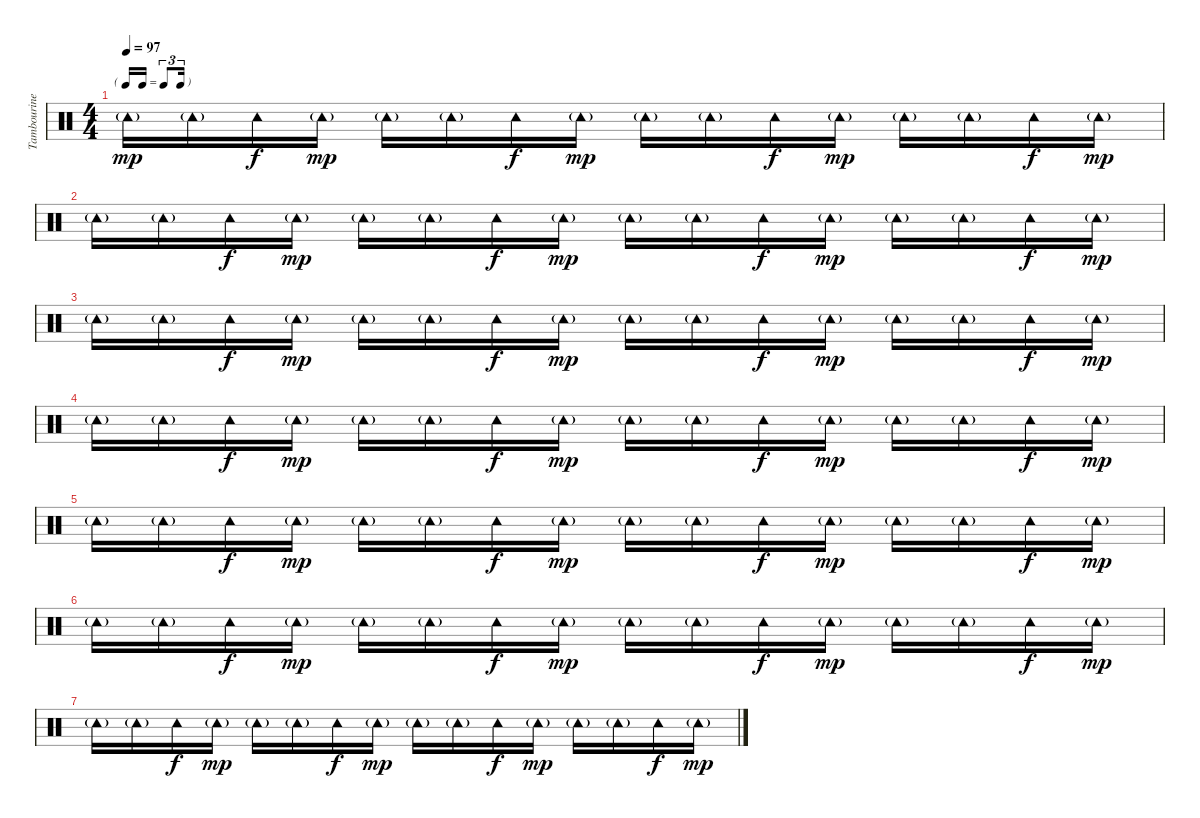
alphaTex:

\track ("Tambourine" "Tambourine") {instrument percussion}
\staff {score}
\articulation defaults
\ts (4 4)
\tf triplet16th
\tempo 97
\clef neutral
\ks c "Tambourine (hit)"{g}.16{dy mp} "Tambourine (hit)"{g}.16 "Tambourine (hit)".16{dy f} "Tambourine (hit)"{g}.16{dy mp} "Tambourine (hit)"{g}.16 "Tambourine (hit)"{g}.16 "Tambourine (hit)".16{dy f} "Tambourine (hit)"{g}.16{dy mp} "Tambourine (hit)"{g}.16 "Tambourine (hit)"{g}.16 "Tambourine (hit)".16{dy f} "Tambourine (hit)"{g}.16{dy mp} "Tambourine (hit)"{g}.16 "Tambourine (hit)"{g}.16 "Tambourine (hit)".16{dy f} "Tambourine (hit)"{g}.16{dy mp}
|
"Tambourine (hit)"{g}.16 "Tambourine (hit)"{g}.16 "Tambourine (hit)".16{dy f} "Tambourine (hit)"{g}.16{dy mp} "Tambourine (hit)"{g}.16 "Tambourine (hit)"{g}.16 "Tambourine (hit)".16{dy f} "Tambourine (hit)"{g}.16{dy mp} "Tambourine (hit)"{g}.16 "Tambourine (hit)"{g}.16 "Tambourine (hit)".16{dy f} "Tambourine (hit)"{g}.16{dy mp} "Tambourine (hit)"{g}.16 "Tambourine (hit)"{g}.16 "Tambourine (hit)".16{dy f} "Tambourine (hit)"{g}.16{dy mp} |
"Tambourine (hit)"{g}.16 "Tambourine (hit)"{g}.16 "Tambourine (hit)".16{dy f} "Tambourine (hit)"{g}.16{dy mp} "Tambourine (hit)"{g}.16 "Tambourine (hit)"{g}.16 "Tambourine (hit)".16{dy f} "Tambourine (hit)"{g}.16{dy mp} "Tambourine (hit)"{g}.16 "Tambourine (hit)"{g}.16 "Tambourine (hit)".16{dy f} "Tambourine (hit)"{g}.16{dy mp} "Tambourine (hit)"{g}.16 "Tambourine (hit)"{g}.16 "Tambourine (hit)".16{dy f} "Tambourine (hit)"{g}.16{dy mp} |
"Tambourine (hit)"{g}.16 "Tambourine (hit)"{g}.16 "Tambourine (hit)".16{dy f} "Tambourine (hit)"{g}.16{dy mp} "Tambourine (hit)"{g}.16 "Tambourine (hit)"{g}.16 "Tambourine (hit)".16{dy f} "Tambourine (hit)"{g}.16{dy mp} "Tambourine (hit)"{g}.16 "Tambourine (hit)"{g}.16 "Tambourine (hit)".16{dy f} "Tambourine (hit)"{g}.16{dy mp} "Tambourine (hit)"{g}.16 "Tambourine (hit)"{g}.16 "Tambourine (hit)".16{dy f} "Tambourine (hit)"{g}.16{dy mp} |
"Tambourine (hit)"{g}.16 "Tambourine (hit)"{g}.16 "Tambourine (hit)".16{dy f} "Tambourine (hit)"{g}.16{dy mp} "Tambourine (hit)"{g}.16 "Tambourine (hit)"{g}.16 "Tambourine (hit)".16{dy f} "Tambourine (hit)"{g}.16{dy mp} "Tambourine (hit)"{g}.16 "Tambourine (hit)"{g}.16 "Tambourine (hit)".16{dy f} "Tambourine (hit)"{g}.16{dy mp} "Tambourine (hit)"{g}.16 "Tambourine (hit)"{g}.16 "Tambourine (hit)".16{dy f} "Tambourine (hit)"{g}.16{dy mp} |
"Tambourine (hit)"{g}.16 "Tambourine (hit)"{g}.16 "Tambourine (hit)".16{dy f} "Tambourine (hit)"{g}.16{dy mp} "Tambourine (hit)"{g}.16 "Tambourine (hit)"{g}.16 "Tambourine (hit)".16{dy f} "Tambourine (hit)"{g}.16{dy mp} "Tambourine (hit)"{g}.16 "Tambourine (hit)"{g}.16 "Tambourine (hit)".16{dy f} "Tambourine (hit)"{g}.16{dy mp} "Tambourine (hit)"{g}.16 "Tambourine (hit)"{g}.16 "Tambourine (hit)".16{dy f} "Tambourine (hit)"{g}.16{dy mp} |
"Tambourine (hit)"{g}.16 "Tambourine (hit)"{g}.16 "Tambourine (hit)".16{dy f} "Tambourine (hit)"{g}.16{dy mp} "Tambourine (hit)"{g}.16 "Tambourine (hit)"{g}.16 "Tambourine (hit)".16{dy f} "Tambourine (hit)"{g}.16{dy mp} "Tambourine (hit)"{g}.16 "Tambourine (hit)"{g}.16 "Tambourine (hit)".16{dy f} "Tambourine (hit)"{g}.16{dy mp} "Tambourine (hit)"{g}.16 "Tambourine (hit)"{g}.16 "Tambourine (hit)".16{dy f} "Tambourine (hit)"{g}.16{dy mp}
